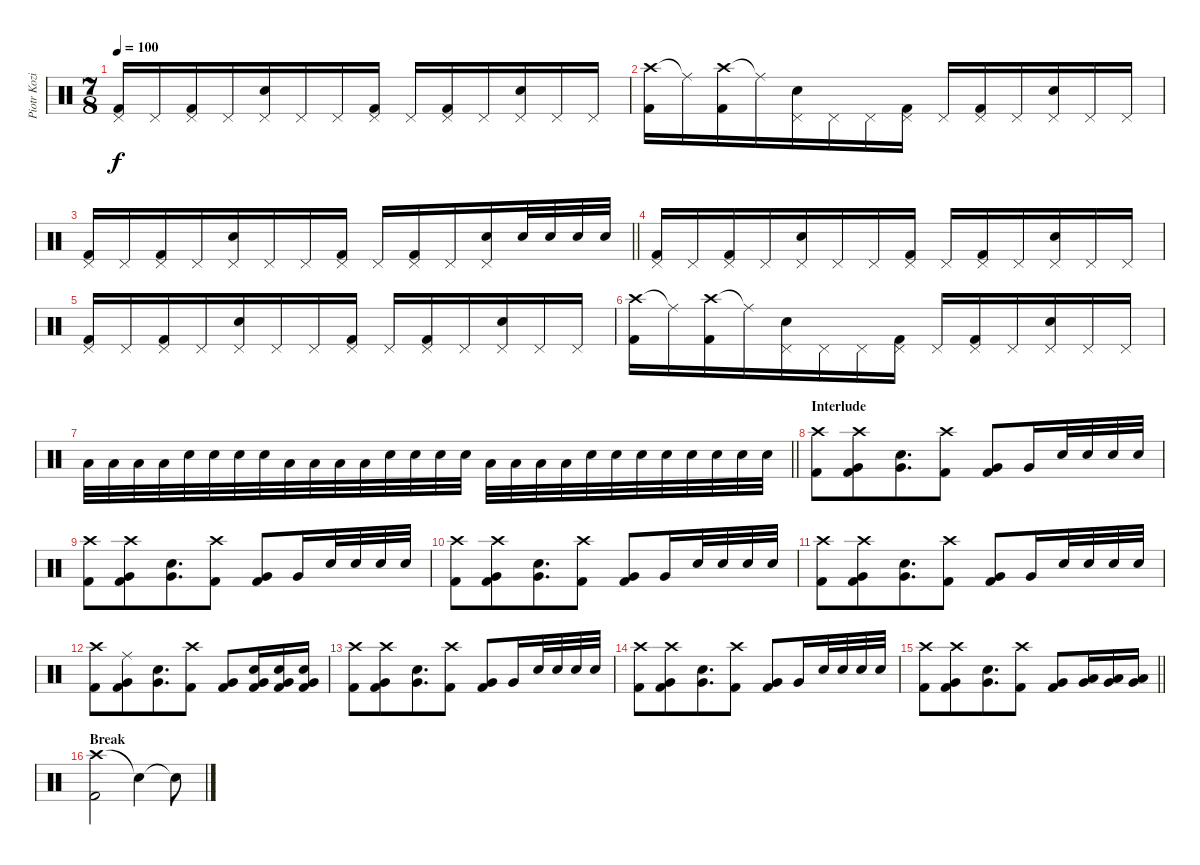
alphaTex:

\track ("Piotr Kozieradzki" "Piotr Kozi") {instrument percussion}
\staff {score}
\articulation defaults
\ts (7 8)
\tempo 100
\clef neutral
\ks c
("Pedal Hi-Hat (hit)" "Kick (hit) 2").16{dy f} "Pedal Hi-Hat (hit)".16 ("Pedal Hi-Hat (hit)" "Kick (hit) 2").16 "Pedal Hi-Hat (hit)".16 ("Pedal Hi-Hat (hit)" "Snare (hit) 2").16 "Pedal Hi-Hat (hit)".16 "Pedal Hi-Hat (hit)".16 ("Pedal Hi-Hat (hit)" "Kick (hit) 2").16 "Pedal Hi-Hat (hit)".16 ("Pedal Hi-Hat (hit)" "Kick (hit) 2").16 "Pedal Hi-Hat (hit)".16 ("Pedal Hi-Hat (hit)" "Snare (hit) 2").16 "Pedal Hi-Hat (hit)".16 "Pedal Hi-Hat (hit)".16 |
("Crash high (hit)" "Kick (hit) 2").16 "Ride (middle)"{t}.16 ("Crash high (hit)" "Kick (hit) 2").16 "Ride (middle)"{t}.16 ("Pedal Hi-Hat (hit)" "Snare (hit) 2").16 "Pedal Hi-Hat (hit)".16 "Pedal Hi-Hat (hit)".16 ("Pedal Hi-Hat (hit)" "Kick (hit) 2").16 "Pedal Hi-Hat (hit)".16 ("Pedal Hi-Hat (hit)" "Kick (hit) 2").16 "Pedal Hi-Hat (hit)".16 ("Pedal Hi-Hat (hit)" "Snare (hit) 2").16 "Pedal Hi-Hat (hit)".16 "Pedal Hi-Hat (hit)".16 |
\barLineRight lightlight
("Pedal Hi-Hat (hit)" "Kick (hit) 2").16 "Pedal Hi-Hat (hit)".16 ("Pedal Hi-Hat (hit)" "Kick (hit) 2").16 "Pedal Hi-Hat (hit)".16 ("Pedal Hi-Hat (hit)" "Snare (hit) 2").16 "Pedal Hi-Hat (hit)".16 "Pedal Hi-Hat (hit)".16 ("Pedal Hi-Hat (hit)" "Kick (hit) 2").16 "Pedal Hi-Hat (hit)".16 ("Pedal Hi-Hat (hit)" "Kick (hit) 2").16 "Pedal Hi-Hat (hit)".16 ("Pedal Hi-Hat (hit)" "Snare (hit) 2").16 "Snare (hit) 2".32 "Snare (hit) 2".32 "Snare (hit) 2".32 "Snare (hit) 2".32 |
("Pedal Hi-Hat (hit)" "Kick (hit) 2").16 "Pedal Hi-Hat (hit)".16 ("Pedal Hi-Hat (hit)" "Kick (hit) 2").16 "Pedal Hi-Hat (hit)".16 ("Pedal Hi-Hat (hit)" "Snare (hit) 2").16 "Pedal Hi-Hat (hit)".16 "Pedal Hi-Hat (hit)".16 ("Pedal Hi-Hat (hit)" "Kick (hit) 2").16 "Pedal Hi-Hat (hit)".16 ("Pedal Hi-Hat (hit)" "Kick (hit) 2").16 "Pedal Hi-Hat (hit)".16 ("Pedal Hi-Hat (hit)" "Snare (hit) 2").16 "Pedal Hi-Hat (hit)".16 "Pedal Hi-Hat (hit)".16 |
("Pedal Hi-Hat (hit)" "Kick (hit) 2").16 "Pedal Hi-Hat (hit)".16 ("Pedal Hi-Hat (hit)" "Kick (hit) 2").16 "Pedal Hi-Hat (hit)".16 ("Pedal Hi-Hat (hit)" "Snare (hit) 2").16 "Pedal Hi-Hat (hit)".16 "Pedal Hi-Hat (hit)".16 ("Pedal Hi-Hat (hit)" "Kick (hit) 2").16 "Pedal Hi-Hat (hit)".16 ("Pedal Hi-Hat (hit)" "Kick (hit) 2").16 "Pedal Hi-Hat (hit)".16 ("Pedal Hi-Hat (hit)" "Snare (hit) 2").16 "Pedal Hi-Hat (hit)".16 "Pedal Hi-Hat (hit)".16 |
("Crash high (hit)" "Kick (hit) 2").16 "Ride (middle)"{t}.16 ("Crash high (hit)" "Kick (hit) 2").16 "Ride (middle)"{t}.16 ("Pedal Hi-Hat (hit)" "Snare (hit) 2").16 "Pedal Hi-Hat (hit)".16 "Pedal Hi-Hat (hit)".16 ("Pedal Hi-Hat (hit)" "Kick (hit) 2").16 "Pedal Hi-Hat (hit)".16 ("Pedal Hi-Hat (hit)" "Kick (hit) 2").16 "Pedal Hi-Hat (hit)".16 ("Pedal Hi-Hat (hit)" "Snare (hit) 2").16 "Pedal Hi-Hat (hit)".16 "Pedal Hi-Hat (hit)".16 |
\barLineRight lightlight "Low Tom (hit)".32 "Low Tom (hit)".32 "Low Tom (hit)".32 "Low Tom (hit)".32 "Snare (hit) 2".32 "Snare (hit) 2".32 "Snare (hit) 2".32 "Snare (hit) 2".32 "Low Tom (hit)".32 "Low Tom (hit)".32 "Low Tom (hit)".32 "Low Tom (hit)".32 "Snare (hit) 2".32 "Snare (hit) 2".32 "Snare (hit) 2".32 "Snare (hit) 2".32 "Low Tom (hit)".32 "Low Tom (hit)".32 "Low Tom (hit)".32 "Low Tom (hit)".32 "Snare (hit) 2".32 "Snare (hit) 2".32 "Snare (hit) 2".32 "Snare (hit) 2".32 "Snare (hit) 2".32 "Snare (hit) 2".32 "Snare (hit) 2".32 "Snare (hit) 2".32
|
\section ("" "Interlude")
("Crash high (hit)" "Kick (hit) 2").8 ("Crash high (hit)" "Very Low Tom (hit)" "Kick (hit) 2").8 ("Very Low Tom (hit)" "Snare (hit) 2").8{d} ("Crash high (hit)" "Kick (hit) 2").8 ("Very Low Tom (hit)" "Kick (hit) 2").8 "Very Low Tom (hit)".16 "Snare (hit) 2".32 "Snare (hit) 2".32 "Snare (hit) 2".32 "Snare (hit) 2".32 |
("Crash high (hit)" "Kick (hit) 2").8 ("Crash high (hit)" "Very Low Tom (hit)" "Kick (hit) 2").8 ("Very Low Tom (hit)" "Snare (hit) 2").8{d} ("Crash high (hit)" "Kick (hit) 2").8 ("Very Low Tom (hit)" "Kick (hit) 2").8 "Very Low Tom (hit)".16 "Snare (hit) 2".32 "Snare (hit) 2".32 "Snare (hit) 2".32 "Snare (hit) 2".32 |
("Crash high (hit)" "Kick (hit) 2").8 ("Crash high (hit)" "Very Low Tom (hit)" "Kick (hit) 2").8 ("Very Low Tom (hit)" "Snare (hit) 2").8{d} ("Crash high (hit)" "Kick (hit) 2").8 ("Very Low Tom (hit)" "Kick (hit) 2").8 "Very Low Tom (hit)".16 "Snare (hit) 2".32 "Snare (hit) 2".32 "Snare (hit) 2".32 "Snare (hit) 2".32 |
("Crash high (hit)" "Kick (hit) 2").8 ("Crash high (hit)" "Very Low Tom (hit)" "Kick (hit) 2").8 ("Very Low Tom (hit)" "Snare (hit) 2").8{d} ("Crash high (hit)" "Kick (hit) 2").8 ("Very Low Tom (hit)" "Kick (hit) 2").8 "Very Low Tom (hit)".16 "Snare (hit) 2".32 "Snare (hit) 2".32 "Snare (hit) 2".32 "Snare (hit) 2".32 |
("Crash high (hit)" "Kick (hit) 2").8 ("Ride (middle)" "Very Low Tom (hit)" "Kick (hit) 2").8 ("Very Low Tom (hit)" "Snare (hit) 2").8{d} ("Crash high (hit)" "Kick (hit) 2").8 ("Very Low Tom (hit)" "Kick (hit) 2").8 ("Very Low Tom (hit)" "Snare (hit) 2" "Kick (hit) 2").16 ("Very Low Tom (hit)" "Snare (hit) 2" "Kick (hit) 2").16 ("Very Low Tom (hit)" "Snare (hit) 2" "Kick (hit) 2").16 |
("Crash high (hit)" "Kick (hit) 2").8 ("Crash high (hit)" "Very Low Tom (hit)" "Kick (hit) 2").8 ("Very Low Tom (hit)" "Snare (hit) 2").8{d} ("Crash high (hit)" "Kick (hit) 2").8 ("Very Low Tom (hit)" "Kick (hit) 2").8 "Very Low Tom (hit)".16 "Snare (hit) 2".32 "Snare (hit) 2".32 "Snare (hit) 2".32 "Snare (hit) 2".32 |
("Crash high (hit)" "Kick (hit) 2").8 ("Crash high (hit)" "Very Low Tom (hit)" "Kick (hit) 2").8 ("Very Low Tom (hit)" "Snare (hit) 2").8{d} ("Crash high (hit)" "Kick (hit) 2").8 ("Very Low Tom (hit)" "Kick (hit) 2").8 "Very Low Tom (hit)".16 "Snare (hit) 2".32 "Snare (hit) 2".32 "Snare (hit) 2".32 "Snare (hit) 2".32 |
\barLineRight lightlight
("Crash high (hit)" "Kick (hit) 2").8 ("Crash high (hit)" "Very Low Tom (hit)" "Kick (hit) 2").8 ("Very Low Tom (hit)" "Snare (hit) 2").8{d} ("Crash high (hit)" "Kick (hit) 2").8 ("Very Low Tom (hit)" "Kick (hit) 2").8 ("Very Low Tom (hit)" "Low Floor Tom (hit)").16 ("Very Low Tom (hit)" "Low Floor Tom (hit)").16 ("Very Low Tom (hit)" "Low Floor Tom (hit)").16 |
\section ("" "Break")
("Crash high (hit)" "Kick (hit) 2").2 "Snare (hit)"{t}.4 "Snare (hit)"{t}.8
